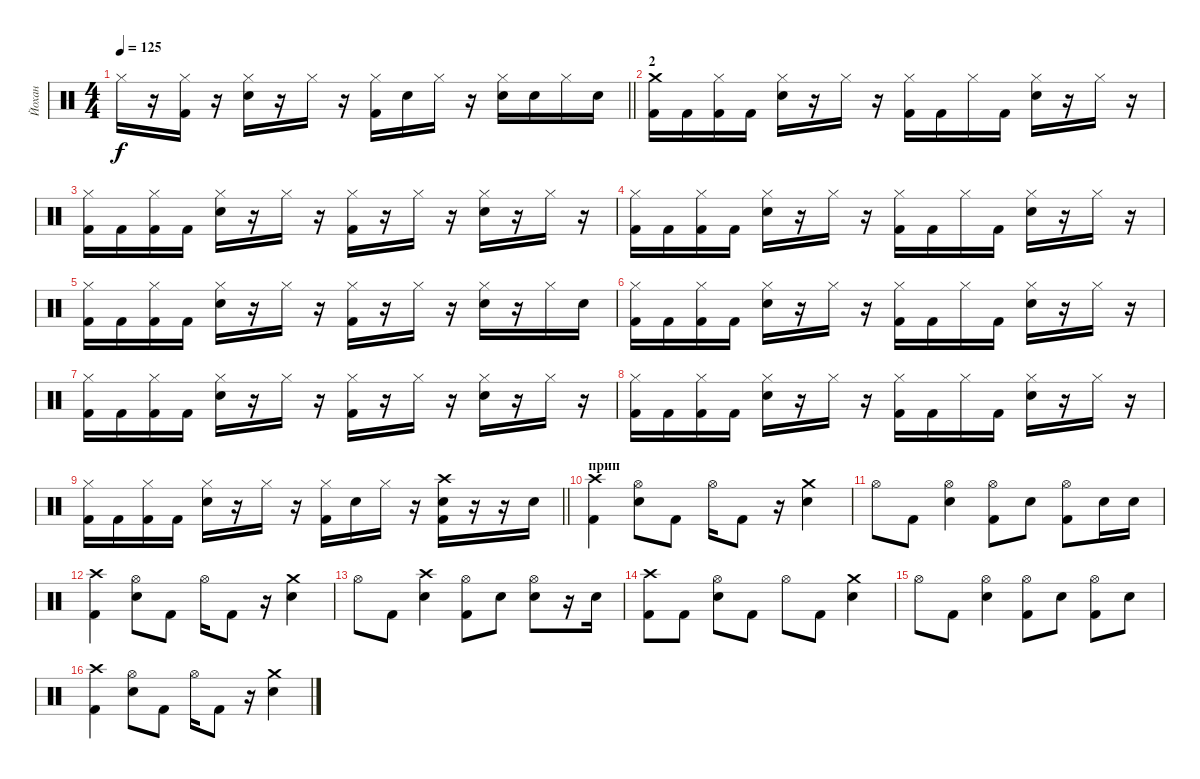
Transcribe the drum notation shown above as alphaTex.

\track ("Йохан" "Йохан") {instrument percussion}
\staff {score}
\articulation defaults
\ts (4 4)
\tempo 125
\clef neutral
\barLineRight lightlight
\ks c "Hi-Hat (closed)".16{dy f}
r.16 ("Hi-Hat (closed)" "Kick (hit) 2").16 r.16 ("Hi-Hat (closed)" "Snare (hit) 2").16 r.16 "Hi-Hat (closed)".16 r.16 ("Hi-Hat (closed)" "Kick (hit) 2").16 "Snare (hit) 2".16 "Hi-Hat (closed)".16 r.16 ("Hi-Hat (closed)" "Snare (hit) 2").16 "Snare (hit) 2".16 "Hi-Hat (closed)".16 "Snare (hit) 2".16 |
\section ("" "2")
("Crash medium (hit)" "Kick (hit) 2").16 "Kick (hit) 2".16 ("Hi-Hat (closed)" "Kick (hit) 2").16 "Kick (hit) 2".16 ("Hi-Hat (closed)" "Snare (hit) 2").16 r.16 "Hi-Hat (closed)".16 r.16 ("Hi-Hat (closed)" "Kick (hit) 2").16 "Kick (hit) 2".16 "Hi-Hat (closed)".16 "Kick (hit) 2".16 ("Hi-Hat (closed)" "Snare (hit) 2").16 r.16 "Hi-Hat (closed)".16 r.16 |
("Hi-Hat (closed)" "Kick (hit) 2").16 "Kick (hit) 2".16 ("Hi-Hat (closed)" "Kick (hit) 2").16 "Kick (hit) 2".16 ("Hi-Hat (closed)" "Snare (hit) 2").16 r.16 "Hi-Hat (closed)".16 r.16 ("Hi-Hat (closed)" "Kick (hit) 2").16 r.16 "Hi-Hat (closed)".16 r.16 ("Hi-Hat (closed)" "Snare (hit) 2").16 r.16 "Hi-Hat (closed)".16 r.16 |
("Hi-Hat (closed)" "Kick (hit) 2").16 "Kick (hit) 2".16 ("Hi-Hat (closed)" "Kick (hit) 2").16 "Kick (hit) 2".16 ("Hi-Hat (closed)" "Snare (hit) 2").16 r.16 "Hi-Hat (closed)".16 r.16 ("Hi-Hat (closed)" "Kick (hit) 2").16 "Kick (hit) 2".16 "Hi-Hat (closed)".16 "Kick (hit) 2".16 ("Hi-Hat (closed)" "Snare (hit) 2").16 r.16 "Hi-Hat (closed)".16 r.16 |
("Hi-Hat (closed)" "Kick (hit) 2").16 "Kick (hit) 2".16 ("Hi-Hat (closed)" "Kick (hit) 2").16 "Kick (hit) 2".16 ("Hi-Hat (closed)" "Snare (hit) 2").16 r.16 "Hi-Hat (closed)".16 r.16 ("Hi-Hat (closed)" "Kick (hit) 2").16 r.16 "Hi-Hat (closed)".16 r.16 ("Hi-Hat (closed)" "Snare (hit) 2").16 r.16 "Hi-Hat (closed)".16 "Snare (hit) 2".16 |
("Hi-Hat (closed)" "Kick (hit) 2").16 "Kick (hit) 2".16 ("Hi-Hat (closed)" "Kick (hit) 2").16 "Kick (hit) 2".16 ("Hi-Hat (closed)" "Snare (hit) 2").16 r.16 "Hi-Hat (closed)".16 r.16 ("Hi-Hat (closed)" "Kick (hit) 2").16 "Kick (hit) 2".16 "Hi-Hat (closed)".16 "Kick (hit) 2".16 ("Hi-Hat (closed)" "Snare (hit) 2").16 r.16 "Hi-Hat (closed)".16 r.16 |
("Hi-Hat (closed)" "Kick (hit) 2").16 "Kick (hit) 2".16 ("Hi-Hat (closed)" "Kick (hit) 2").16 "Kick (hit) 2".16 ("Hi-Hat (closed)" "Snare (hit) 2").16 r.16 "Hi-Hat (closed)".16 r.16 ("Hi-Hat (closed)" "Kick (hit) 2").16 r.16 "Hi-Hat (closed)".16 r.16 ("Hi-Hat (closed)" "Snare (hit) 2").16 r.16 "Hi-Hat (closed)".16 r.16 |
("Hi-Hat (closed)" "Kick (hit) 2").16 "Kick (hit) 2".16 ("Hi-Hat (closed)" "Kick (hit) 2").16 "Kick (hit) 2".16 ("Hi-Hat (closed)" "Snare (hit) 2").16 r.16 "Hi-Hat (closed)".16 r.16 ("Hi-Hat (closed)" "Kick (hit) 2").16 "Kick (hit) 2".16 "Hi-Hat (closed)".16 "Kick (hit) 2".16 ("Hi-Hat (closed)" "Snare (hit) 2").16 r.16 "Hi-Hat (closed)".16 r.16 |
\barLineRight lightlight
("Hi-Hat (closed)" "Kick (hit) 2").16 "Kick (hit) 2".16 ("Hi-Hat (closed)" "Kick (hit) 2").16 "Kick (hit) 2".16 ("Hi-Hat (closed)" "Snare (hit) 2").16 r.16 "Hi-Hat (closed)".16 r.16 ("Hi-Hat (closed)" "Kick (hit) 2").16 "Snare (hit) 2".16 "Hi-Hat (closed)".16 r.16 ("Crash high (hit)" "Snare (hit) 2" "Kick (hit) 2").16 r.16 r.16 "Snare (hit) 2".16 |
\section ("" "прип")
("Crash high (hit)" "Kick (hit) 2").4 ("Hi-Hat (open)" "Snare (hit) 2").8 "Kick (hit) 2".8 "Hi-Hat (open)".16 "Kick (hit) 2".8 r.16 ("Crash medium (hit)" "Snare (hit) 2").4 |
"Hi-Hat (open)".8 "Kick (hit) 2".8 ("Hi-Hat (open)" "Snare (hit) 2").4 ("Hi-Hat (open)" "Kick (hit) 2").8 "Snare (hit) 2".8 ("Hi-Hat (open)" "Kick (hit) 2").8 "Snare (hit) 2".16 "Snare (hit) 2".16 |
("Crash high (hit)" "Kick (hit) 2").4 ("Hi-Hat (open)" "Snare (hit) 2").8 "Kick (hit) 2".8 "Hi-Hat (open)".16 "Kick (hit) 2".8 r.16 ("Crash medium (hit)" "Snare (hit) 2").4 |
"Hi-Hat (open)".8 "Kick (hit) 2".8 ("Crash high (hit)" "Snare (hit) 2").4 ("Hi-Hat (open)" "Kick (hit) 2").8 "Snare (hit) 2".8 ("Hi-Hat (open)" "Snare (hit) 2").8 r.16 "Snare (hit) 2".16 |
("Crash high (hit)" "Kick (hit) 2").8 "Kick (hit) 2".8 ("Hi-Hat (open)" "Snare (hit) 2").8 "Kick (hit) 2".8 "Hi-Hat (open)".8 "Kick (hit) 2".8 ("Crash medium (hit)" "Snare (hit) 2").4 |
"Hi-Hat (open)".8 "Kick (hit) 2".8 ("Hi-Hat (open)" "Snare (hit) 2").4 ("Hi-Hat (open)" "Kick (hit) 2").8 "Snare (hit) 2".8 ("Hi-Hat (open)" "Kick (hit) 2").8 "Snare (hit) 2".8 |
("Crash high (hit)" "Kick (hit) 2").4 ("Hi-Hat (open)" "Snare (hit) 2").8 "Kick (hit) 2".8 "Hi-Hat (open)".16 "Kick (hit) 2".8 r.16 ("Crash medium (hit)" "Snare (hit) 2").4
